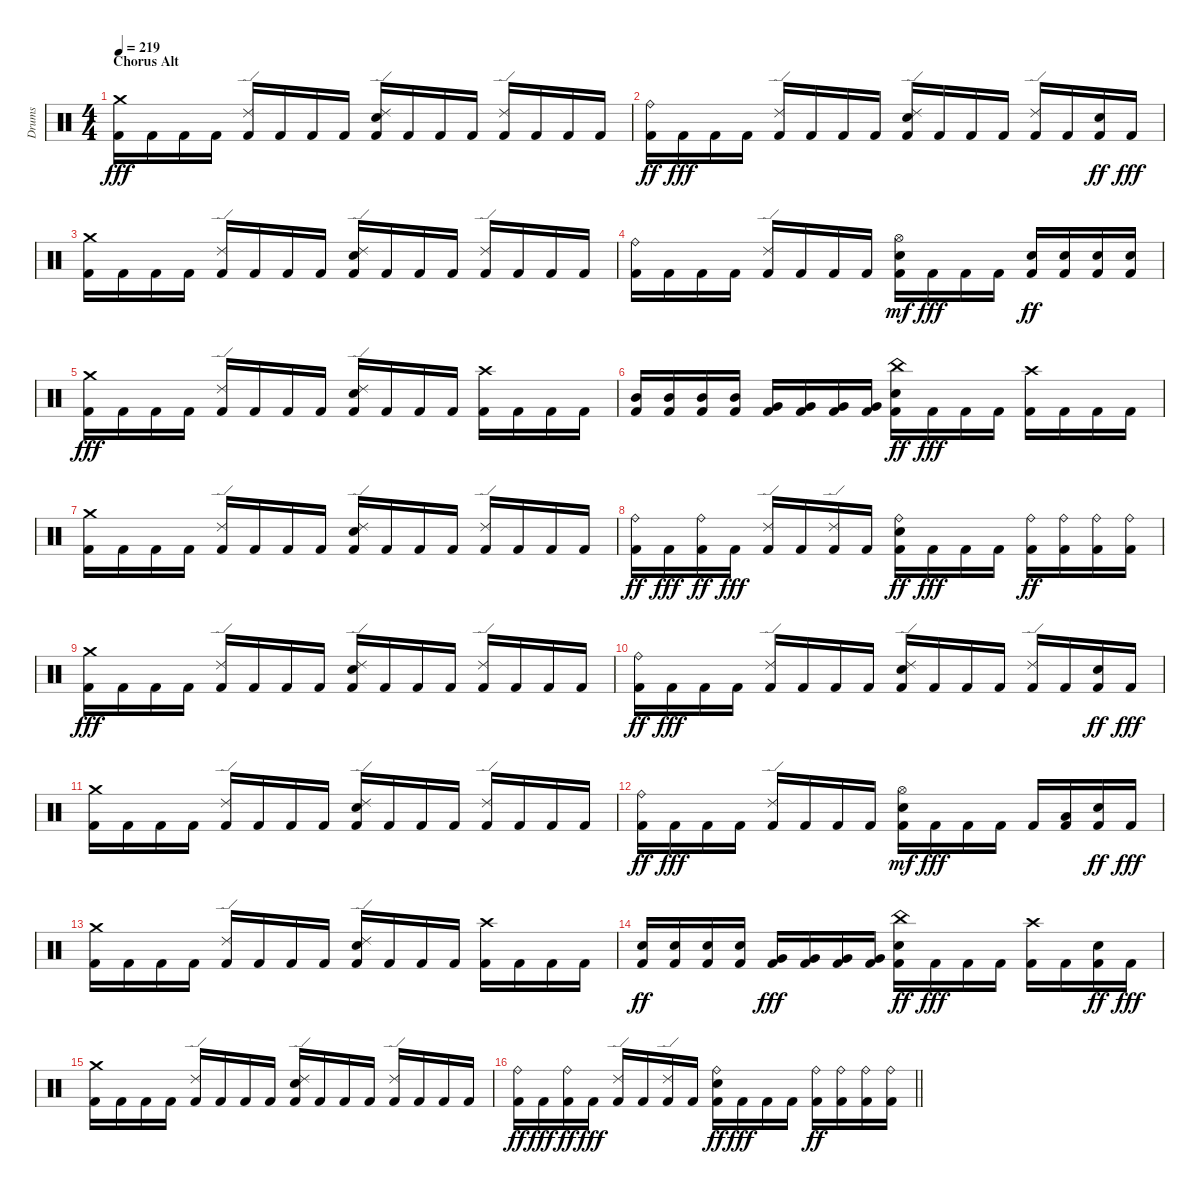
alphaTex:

\track ("Drums" "Drums") {instrument percussion}
\staff {score}
\articulation defaults
\ts (4 4)
\section ("" "Chorus Alt")
\tempo 219
\clef neutral
\ks c
("Kick (hit) 2" "Crash medium (hit)").16{dy fff} "Kick (hit) 2".16 "Kick (hit) 2".16 "Kick (hit) 2".16 ("Kick (hit) 2" "Ride (edge) 2").16 "Kick (hit) 2".16 "Kick (hit) 2".16 "Kick (hit) 2".16 ("Kick (hit) 2" "Snare (hit) 2" "Ride (edge) 2").16 "Kick (hit) 2".16 "Kick (hit) 2".16 "Kick (hit) 2".16 ("Kick (hit) 2" "Ride (edge) 2").16 "Kick (hit) 2".16 "Kick (hit) 2".16 "Kick (hit) 2".16 |
("Kick (hit) 2" "Ride (bell)").16{dy ff} "Kick (hit) 2".16{dy fff} "Kick (hit) 2".16 "Kick (hit) 2".16 ("Kick (hit) 2" "Ride (edge) 2").16 "Kick (hit) 2".16 "Kick (hit) 2".16 "Kick (hit) 2".16 ("Kick (hit) 2" "Snare (hit) 2" "Ride (edge) 2").16 "Kick (hit) 2".16 "Kick (hit) 2".16 "Kick (hit) 2".16 ("Kick (hit) 2" "Ride (edge) 2").16 "Kick (hit) 2".16 ("Kick (hit) 2" "Snare (hit) 2").16{dy ff} "Kick (hit) 2".16{dy fff} |
("Kick (hit) 2" "Crash medium (hit)").16 "Kick (hit) 2".16 "Kick (hit) 2".16 "Kick (hit) 2".16 ("Kick (hit) 2" "Ride (edge) 2").16 "Kick (hit) 2".16 "Kick (hit) 2".16 "Kick (hit) 2".16 ("Kick (hit) 2" "Snare (hit) 2" "Ride (edge) 2").16 "Kick (hit) 2".16 "Kick (hit) 2".16 "Kick (hit) 2".16 ("Kick (hit) 2" "Ride (edge) 2").16 "Kick (hit) 2".16 "Kick (hit) 2".16 "Kick (hit) 2".16 |
("Kick (hit) 2" "Ride (bell)").16 "Kick (hit) 2".16 "Kick (hit) 2".16 "Kick (hit) 2".16 ("Kick (hit) 2" "Ride (edge) 2").16 "Kick (hit) 2".16 "Kick (hit) 2".16 "Kick (hit) 2".16 ("Kick (hit) 2" "Snare (hit) 2" "Hi-Hat (open)").16{dy mf} "Kick (hit) 2".16{dy fff} "Kick (hit) 2".16 "Kick (hit) 2".16 ("Kick (hit) 2" "Snare (hit) 2").16{dy ff} ("Kick (hit) 2" "Snare (hit) 2").16 ("Kick (hit) 2" "Snare (hit) 2").16 ("Kick (hit) 2" "Snare (hit) 2").16 |
("Kick (hit) 2" "Crash medium (hit)").16{dy fff} "Kick (hit) 2".16 "Kick (hit) 2".16 "Kick (hit) 2".16 ("Kick (hit) 2" "Ride (edge) 2").16 "Kick (hit) 2".16 "Kick (hit) 2".16 "Kick (hit) 2".16 ("Kick (hit) 2" "Snare (hit) 2" "Ride (edge) 2").16 "Kick (hit) 2".16 "Kick (hit) 2".16 "Kick (hit) 2".16 ("Kick (hit) 2" "Crash high (hit)").16 "Kick (hit) 2".16 "Kick (hit) 2".16 "Kick (hit) 2".16 |
("Kick (hit) 2" "Mid Tom (hit)").16 ("Kick (hit) 2" "Mid Tom (hit)").16 ("Kick (hit) 2" "Mid Tom (hit)").16 ("Kick (hit) 2" "Mid Tom (hit)").16 ("Kick (hit) 2" "Very Low Tom (hit)").16 ("Kick (hit) 2" "Very Low Tom (hit)").16 ("Kick (hit) 2" "Very Low Tom (hit)").16 ("Kick (hit) 2" "Very Low Tom (hit)").16 ("Kick (hit) 2" "Snare (hit) 2" "China (hit)").16{dy ff} "Kick (hit) 2".16{dy fff} "Kick (hit) 2".16 "Kick (hit) 2".16 ("Kick (hit) 2" "Crash high (hit)").16 "Kick (hit) 2".16 "Kick (hit) 2".16 "Kick (hit) 2".16 |
("Kick (hit) 2" "Crash medium (hit)").16 "Kick (hit) 2".16 "Kick (hit) 2".16 "Kick (hit) 2".16 ("Kick (hit) 2" "Ride (edge) 2").16 "Kick (hit) 2".16 "Kick (hit) 2".16 "Kick (hit) 2".16 ("Kick (hit) 2" "Snare (hit) 2" "Ride (edge) 2").16 "Kick (hit) 2".16 "Kick (hit) 2".16 "Kick (hit) 2".16 ("Kick (hit) 2" "Ride (edge) 2").16 "Kick (hit) 2".16 "Kick (hit) 2".16 "Kick (hit) 2".16 |
("Kick (hit) 2" "Ride (bell)").16{dy ff} "Kick (hit) 2".16{dy fff} ("Kick (hit) 2" "Ride (bell)").16{dy ff} "Kick (hit) 2".16{dy fff} ("Kick (hit) 2" "Ride (edge) 2").16 "Kick (hit) 2".16 ("Kick (hit) 2" "Ride (edge) 2").16 "Kick (hit) 2".16 ("Kick (hit) 2" "Snare (hit) 2" "Ride (bell)").16{dy ff} "Kick (hit) 2".16{dy fff} "Kick (hit) 2".16 "Kick (hit) 2".16 ("Kick (hit) 2" "Ride (bell)").16{dy ff} ("Kick (hit) 2" "Ride (bell)").16 ("Kick (hit) 2" "Ride (bell)").16 ("Kick (hit) 2" "Ride (bell)").16 |
("Kick (hit) 2" "Crash medium (hit)").16{dy fff} "Kick (hit) 2".16 "Kick (hit) 2".16 "Kick (hit) 2".16 ("Kick (hit) 2" "Ride (edge) 2").16 "Kick (hit) 2".16 "Kick (hit) 2".16 "Kick (hit) 2".16 ("Kick (hit) 2" "Snare (hit) 2" "Ride (edge) 2").16 "Kick (hit) 2".16 "Kick (hit) 2".16 "Kick (hit) 2".16 ("Kick (hit) 2" "Ride (edge) 2").16 "Kick (hit) 2".16 "Kick (hit) 2".16 "Kick (hit) 2".16 |
("Kick (hit) 2" "Ride (bell)").16{dy ff} "Kick (hit) 2".16{dy fff} "Kick (hit) 2".16 "Kick (hit) 2".16 ("Kick (hit) 2" "Ride (edge) 2").16 "Kick (hit) 2".16 "Kick (hit) 2".16 "Kick (hit) 2".16 ("Kick (hit) 2" "Snare (hit) 2" "Ride (edge) 2").16 "Kick (hit) 2".16 "Kick (hit) 2".16 "Kick (hit) 2".16 ("Kick (hit) 2" "Ride (edge) 2").16 "Kick (hit) 2".16 ("Kick (hit) 2" "Snare (hit) 2").16{dy ff} "Kick (hit) 2".16{dy fff} |
("Kick (hit) 2" "Crash medium (hit)").16 "Kick (hit) 2".16 "Kick (hit) 2".16 "Kick (hit) 2".16 ("Kick (hit) 2" "Ride (edge) 2").16 "Kick (hit) 2".16 "Kick (hit) 2".16 "Kick (hit) 2".16 ("Kick (hit) 2" "Snare (hit) 2" "Ride (edge) 2").16 "Kick (hit) 2".16 "Kick (hit) 2".16 "Kick (hit) 2".16 ("Kick (hit) 2" "Ride (edge) 2").16 "Kick (hit) 2".16 "Kick (hit) 2".16 "Kick (hit) 2".16 |
("Kick (hit) 2" "Ride (bell)").16{dy ff} "Kick (hit) 2".16{dy fff} "Kick (hit) 2".16 "Kick (hit) 2".16 ("Kick (hit) 2" "Ride (edge) 2").16 "Kick (hit) 2".16 "Kick (hit) 2".16 "Kick (hit) 2".16 ("Kick (hit) 2" "Snare (hit) 2" "Hi-Hat (open)").16{dy mf} "Kick (hit) 2".16{dy fff} "Kick (hit) 2".16 "Kick (hit) 2".16 "Kick (hit) 2".16 ("Kick (hit) 2" "Low Tom (hit)").16 ("Kick (hit) 2" "Snare (hit) 2").16{dy ff} "Kick (hit) 2".16{dy fff} |
("Kick (hit) 2" "Crash medium (hit)").16 "Kick (hit) 2".16 "Kick (hit) 2".16 "Kick (hit) 2".16 ("Kick (hit) 2" "Ride (edge) 2").16 "Kick (hit) 2".16 "Kick (hit) 2".16 "Kick (hit) 2".16 ("Kick (hit) 2" "Snare (hit) 2" "Ride (edge) 2").16 "Kick (hit) 2".16 "Kick (hit) 2".16 "Kick (hit) 2".16 ("Kick (hit) 2" "Crash high (hit)").16 "Kick (hit) 2".16 "Kick (hit) 2".16 "Kick (hit) 2".16 |
("Kick (hit) 2" "Snare (hit) 2").16{dy ff} ("Kick (hit) 2" "Snare (hit) 2").16 ("Kick (hit) 2" "Snare (hit) 2").16 ("Kick (hit) 2" "Snare (hit) 2").16 ("Kick (hit) 2" "Very Low Tom (hit)").16{dy fff} ("Kick (hit) 2" "Very Low Tom (hit)").16 ("Kick (hit) 2" "Very Low Tom (hit)").16 ("Kick (hit) 2" "Very Low Tom (hit)").16 ("Kick (hit) 2" "Snare (hit) 2" "China (hit)").16{dy ff} "Kick (hit) 2".16{dy fff} "Kick (hit) 2".16 "Kick (hit) 2".16 ("Kick (hit) 2" "Crash high (hit)").16 "Kick (hit) 2".16 ("Kick (hit) 2" "Snare (hit) 2").16{dy ff} "Kick (hit) 2".16{dy fff} |
("Kick (hit) 2" "Crash medium (hit)").16 "Kick (hit) 2".16 "Kick (hit) 2".16 "Kick (hit) 2".16 ("Kick (hit) 2" "Ride (edge) 2").16 "Kick (hit) 2".16 "Kick (hit) 2".16 "Kick (hit) 2".16 ("Kick (hit) 2" "Snare (hit) 2" "Ride (edge) 2").16 "Kick (hit) 2".16 "Kick (hit) 2".16 "Kick (hit) 2".16 ("Kick (hit) 2" "Ride (edge) 2").16 "Kick (hit) 2".16 "Kick (hit) 2".16 "Kick (hit) 2".16 |
\barLineRight lightlight
("Kick (hit) 2" "Ride (bell)").16{dy ff} "Kick (hit) 2".16{dy fff} ("Kick (hit) 2" "Ride (bell)").16{dy ff} "Kick (hit) 2".16{dy fff} ("Kick (hit) 2" "Ride (edge) 2").16 "Kick (hit) 2".16 ("Kick (hit) 2" "Ride (edge) 2").16 "Kick (hit) 2".16 ("Kick (hit) 2" "Snare (hit) 2" "Ride (bell)").16{dy ff} "Kick (hit) 2".16{dy fff} "Kick (hit) 2".16 "Kick (hit) 2".16 ("Kick (hit) 2" "Ride (bell)").16{dy ff} ("Kick (hit) 2" "Ride (bell)").16 ("Kick (hit) 2" "Ride (bell)").16 ("Kick (hit) 2" "Ride (bell)").16
